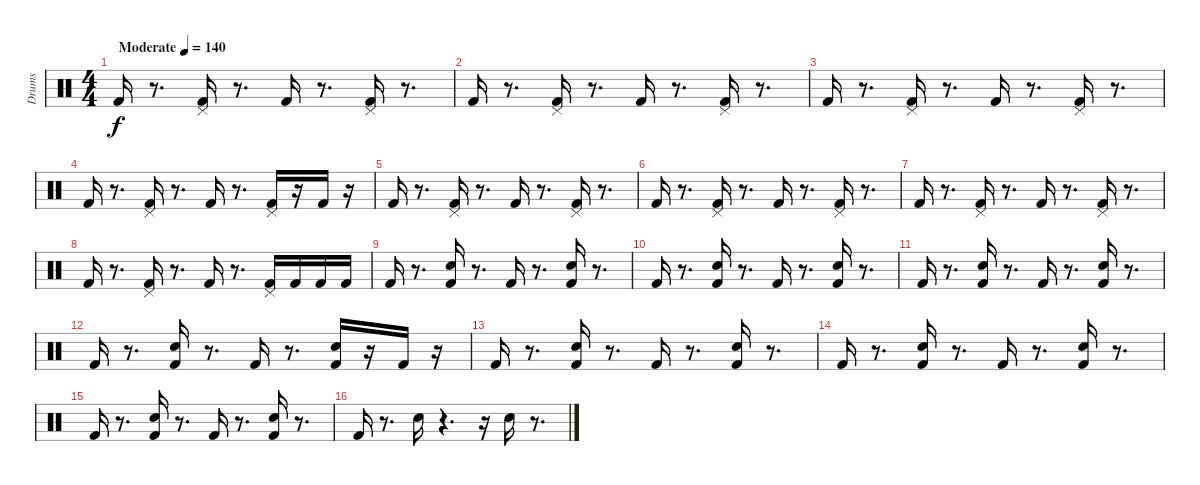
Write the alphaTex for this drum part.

\track ("Drums" "Drums") {instrument percussion}
\staff {score}
\articulation defaults
\ts (4 4)
\tempo (140 "Moderate")
\clef neutral
\ks c "Kick (hit) 2".16{dy f}
r.8{d} ("Pedal Hi-Hat (hit)" "Kick (hit) 2").16 r.8{d} "Kick (hit) 2".16 r.8{d} ("Pedal Hi-Hat (hit)" "Kick (hit) 2").16 r.8{d} |
"Kick (hit) 2".16 r.8{d} ("Pedal Hi-Hat (hit)" "Kick (hit) 2").16 r.8{d} "Kick (hit) 2".16 r.8{d} ("Pedal Hi-Hat (hit)" "Kick (hit) 2").16 r.8{d} |
"Kick (hit) 2".16 r.8{d} ("Pedal Hi-Hat (hit)" "Kick (hit) 2").16 r.8{d} "Kick (hit) 2".16 r.8{d} ("Pedal Hi-Hat (hit)" "Kick (hit) 2").16 r.8{d} |
"Kick (hit) 2".16 r.8{d} ("Pedal Hi-Hat (hit)" "Kick (hit) 2").16 r.8{d} "Kick (hit) 2".16 r.8{d} ("Pedal Hi-Hat (hit)" "Kick (hit) 2").16 r.16 "Kick (hit) 2".16 r.16 |
"Kick (hit) 2".16 r.8{d} ("Pedal Hi-Hat (hit)" "Kick (hit) 2").16 r.8{d} "Kick (hit) 2".16 r.8{d} ("Pedal Hi-Hat (hit)" "Kick (hit) 2").16 r.8{d} |
"Kick (hit) 2".16 r.8{d} ("Pedal Hi-Hat (hit)" "Kick (hit) 2").16 r.8{d} "Kick (hit) 2".16 r.8{d} ("Pedal Hi-Hat (hit)" "Kick (hit) 2").16 r.8{d} |
"Kick (hit) 2".16 r.8{d} ("Pedal Hi-Hat (hit)" "Kick (hit) 2").16 r.8{d} "Kick (hit) 2".16 r.8{d} ("Pedal Hi-Hat (hit)" "Kick (hit) 2").16 r.8{d} |
"Kick (hit) 2".16 r.8{d} ("Pedal Hi-Hat (hit)" "Kick (hit) 2").16 r.8{d} "Kick (hit) 2".16 r.8{d} ("Pedal Hi-Hat (hit)" "Kick (hit) 2").16 "Kick (hit) 2".16 "Kick (hit) 2".16 "Kick (hit) 2".16 |
"Kick (hit) 2".16 r.8{d} ("Hand Clap (hit)" "Kick (hit) 2").16 r.8{d} "Kick (hit) 2".16 r.8{d} ("Hand Clap (hit)" "Kick (hit) 2").16 r.8{d} |
"Kick (hit) 2".16 r.8{d} ("Hand Clap (hit)" "Kick (hit) 2").16 r.8{d} "Kick (hit) 2".16 r.8{d} ("Hand Clap (hit)" "Kick (hit) 2").16 r.8{d} |
"Kick (hit) 2".16 r.8{d} ("Hand Clap (hit)" "Kick (hit) 2").16 r.8{d} "Kick (hit) 2".16 r.8{d} ("Hand Clap (hit)" "Kick (hit) 2").16 r.8{d} |
"Kick (hit) 2".16 r.8{d} ("Hand Clap (hit)" "Kick (hit) 2").16 r.8{d} "Kick (hit) 2".16 r.8{d} ("Hand Clap (hit)" "Kick (hit) 2").16 r.16 "Kick (hit) 2".16 r.16 |
"Kick (hit) 2".16 r.8{d} ("Hand Clap (hit)" "Kick (hit) 2").16 r.8{d} "Kick (hit) 2".16 r.8{d} ("Hand Clap (hit)" "Kick (hit) 2").16 r.8{d} |
"Kick (hit) 2".16 r.8{d} ("Hand Clap (hit)" "Kick (hit) 2").16 r.8{d} "Kick (hit) 2".16 r.8{d} ("Hand Clap (hit)" "Kick (hit) 2").16 r.8{d} |
"Kick (hit) 2".16 r.8{d} ("Hand Clap (hit)" "Kick (hit) 2").16 r.8{d} "Kick (hit) 2".16 r.8{d} ("Hand Clap (hit)" "Kick (hit) 2").16 r.8{d} |
"Kick (hit) 2".16 r.8{d} "Hand Clap (hit)".16 r.4{d} r.16 "Hand Clap (hit)".16 r.8{d}
